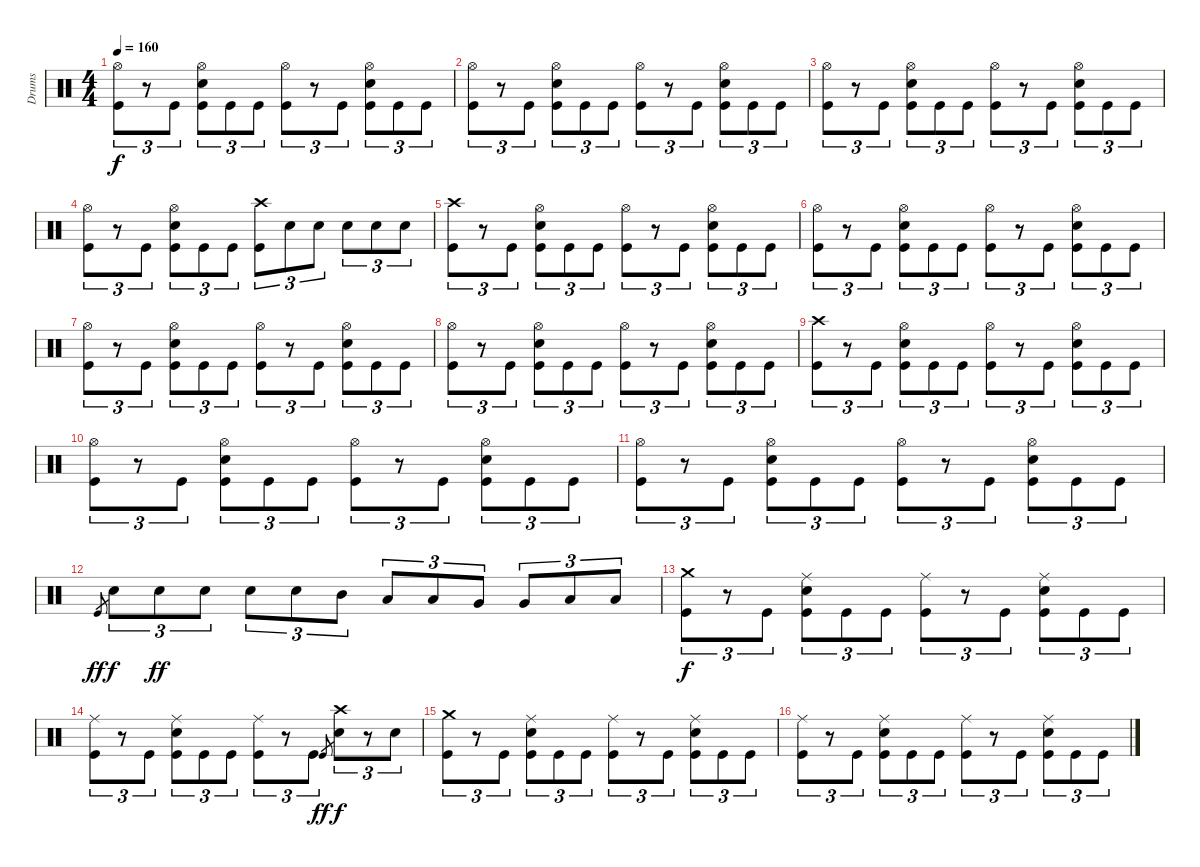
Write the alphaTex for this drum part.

\track ("Drums" "Drums") {instrument percussion}
\staff {score}
\articulation defaults
\ts (4 4)
\tempo 160
\clef neutral
\ks c
("Hi-Hat (open)" "Kick (hit)").8{tu (3 2) dy f} r.8{tu (3 2)} "Kick (hit)".8{tu (3 2)} ("Hi-Hat (open)" "Snare (hit) 2" "Kick (hit)").8{tu (3 2)} "Kick (hit)".8{tu (3 2)} "Kick (hit)".8{tu (3 2)} ("Hi-Hat (open)" "Kick (hit)").8{tu (3 2)} r.8{tu (3 2)} "Kick (hit)".8{tu (3 2)} ("Hi-Hat (open)" "Snare (hit) 2" "Kick (hit)").8{tu (3 2)} "Kick (hit)".8{tu (3 2)} "Kick (hit)".8{tu (3 2)} |
("Hi-Hat (open)" "Kick (hit)").8{tu (3 2)} r.8{tu (3 2)} "Kick (hit)".8{tu (3 2)} ("Hi-Hat (open)" "Snare (hit) 2" "Kick (hit)").8{tu (3 2)} "Kick (hit)".8{tu (3 2)} "Kick (hit)".8{tu (3 2)} ("Hi-Hat (open)" "Kick (hit)").8{tu (3 2)} r.8{tu (3 2)} "Kick (hit)".8{tu (3 2)} ("Hi-Hat (open)" "Snare (hit) 2" "Kick (hit)").8{tu (3 2)} "Kick (hit)".8{tu (3 2)} "Kick (hit)".8{tu (3 2)} |
("Hi-Hat (open)" "Kick (hit)").8{tu (3 2)} r.8{tu (3 2)} "Kick (hit)".8{tu (3 2)} ("Hi-Hat (open)" "Snare (hit) 2" "Kick (hit)").8{tu (3 2)} "Kick (hit)".8{tu (3 2)} "Kick (hit)".8{tu (3 2)} ("Hi-Hat (open)" "Kick (hit)").8{tu (3 2)} r.8{tu (3 2)} "Kick (hit)".8{tu (3 2)} ("Hi-Hat (open)" "Snare (hit) 2" "Kick (hit)").8{tu (3 2)} "Kick (hit)".8{tu (3 2)} "Kick (hit)".8{tu (3 2)} |
("Hi-Hat (open)" "Kick (hit)").8{tu (3 2)} r.8{tu (3 2)} "Kick (hit)".8{tu (3 2)} ("Hi-Hat (open)" "Snare (hit) 2" "Kick (hit)").8{tu (3 2)} "Kick (hit)".8{tu (3 2)} "Kick (hit)".8{tu (3 2)} ("Crash high (hit)" "Kick (hit)").8{tu (3 2)} "Snare (hit) 2".8{tu (3 2)} "Snare (hit) 2".8{tu (3 2)} "Snare (hit) 2".8{tu (3 2)} "Snare (hit) 2".8{tu (3 2)} "Snare (hit) 2".8{tu (3 2)} |
("Crash high (hit)" "Kick (hit)").8{tu (3 2)} r.8{tu (3 2)} "Kick (hit)".8{tu (3 2)} ("Hi-Hat (open)" "Snare (hit) 2" "Kick (hit)").8{tu (3 2)} "Kick (hit)".8{tu (3 2)} "Kick (hit)".8{tu (3 2)} ("Hi-Hat (open)" "Kick (hit)").8{tu (3 2)} r.8{tu (3 2)} "Kick (hit)".8{tu (3 2)} ("Hi-Hat (open)" "Snare (hit) 2" "Kick (hit)").8{tu (3 2)} "Kick (hit)".8{tu (3 2)} "Kick (hit)".8{tu (3 2)} |
("Hi-Hat (open)" "Kick (hit)").8{tu (3 2)} r.8{tu (3 2)} "Kick (hit)".8{tu (3 2)} ("Hi-Hat (open)" "Snare (hit) 2" "Kick (hit)").8{tu (3 2)} "Kick (hit)".8{tu (3 2)} "Kick (hit)".8{tu (3 2)} ("Hi-Hat (open)" "Kick (hit)").8{tu (3 2)} r.8{tu (3 2)} "Kick (hit)".8{tu (3 2)} ("Hi-Hat (open)" "Snare (hit) 2" "Kick (hit)").8{tu (3 2)} "Kick (hit)".8{tu (3 2)} "Kick (hit)".8{tu (3 2)} |
("Hi-Hat (open)" "Kick (hit)").8{tu (3 2)} r.8{tu (3 2)} "Kick (hit)".8{tu (3 2)} ("Hi-Hat (open)" "Snare (hit) 2" "Kick (hit)").8{tu (3 2)} "Kick (hit)".8{tu (3 2)} "Kick (hit)".8{tu (3 2)} ("Hi-Hat (open)" "Kick (hit)").8{tu (3 2)} r.8{tu (3 2)} "Kick (hit)".8{tu (3 2)} ("Hi-Hat (open)" "Snare (hit) 2" "Kick (hit)").8{tu (3 2)} "Kick (hit)".8{tu (3 2)} "Kick (hit)".8{tu (3 2)} |
("Hi-Hat (open)" "Kick (hit)").8{tu (3 2)} r.8{tu (3 2)} "Kick (hit)".8{tu (3 2)} ("Hi-Hat (open)" "Snare (hit) 2" "Kick (hit)").8{tu (3 2)} "Kick (hit)".8{tu (3 2)} "Kick (hit)".8{tu (3 2)} ("Hi-Hat (open)" "Kick (hit)").8{tu (3 2)} r.8{tu (3 2)} "Kick (hit)".8{tu (3 2)} ("Hi-Hat (open)" "Snare (hit) 2" "Kick (hit)").8{tu (3 2)} "Kick (hit)".8{tu (3 2)} "Kick (hit)".8{tu (3 2)} |
("Crash high (hit)" "Kick (hit)").8{tu (3 2)} r.8{tu (3 2)} "Kick (hit)".8{tu (3 2)} ("Hi-Hat (open)" "Snare (hit) 2" "Kick (hit)").8{tu (3 2)} "Kick (hit)".8{tu (3 2)} "Kick (hit)".8{tu (3 2)} ("Hi-Hat (open)" "Kick (hit)").8{tu (3 2)} r.8{tu (3 2)} "Kick (hit)".8{tu (3 2)} ("Hi-Hat (open)" "Snare (hit) 2" "Kick (hit)").8{tu (3 2)} "Kick (hit)".8{tu (3 2)} "Kick (hit)".8{tu (3 2)} |
("Hi-Hat (open)" "Kick (hit)").8{tu (3 2)} r.8{tu (3 2)} "Kick (hit)".8{tu (3 2)} ("Hi-Hat (open)" "Snare (hit) 2" "Kick (hit)").8{tu (3 2)} "Kick (hit)".8{tu (3 2)} "Kick (hit)".8{tu (3 2)} ("Hi-Hat (open)" "Kick (hit)").8{tu (3 2)} r.8{tu (3 2)} "Kick (hit)".8{tu (3 2)} ("Hi-Hat (open)" "Snare (hit) 2" "Kick (hit)").8{tu (3 2)} "Kick (hit)".8{tu (3 2)} "Kick (hit)".8{tu (3 2)} |
("Hi-Hat (open)" "Kick (hit)").8{tu (3 2)} r.8{tu (3 2)} "Kick (hit)".8{tu (3 2)} ("Hi-Hat (open)" "Snare (hit) 2" "Kick (hit)").8{tu (3 2)} "Kick (hit)".8{tu (3 2)} "Kick (hit)".8{tu (3 2)} ("Hi-Hat (open)" "Kick (hit)").8{tu (3 2)} r.8{tu (3 2)} "Kick (hit)".8{tu (3 2)} ("Hi-Hat (open)" "Snare (hit) 2" "Kick (hit)").8{tu (3 2)} "Kick (hit)".8{tu (3 2)} "Kick (hit)".8{tu (3 2)} |
"Kick (hit)".8{gr dy ff} "Snare (hit) 2".8{tu (3 2) dy f} "Snare (hit) 2".8{tu (3 2) dy ff} "Snare (hit) 2".8{tu (3 2)} "Snare (hit) 2".8{tu (3 2)} "Snare (hit) 2".8{tu (3 2)} "Mid Tom (hit)".8{tu (3 2)} "Low Tom (hit)".8{tu (3 2)} "Low Tom (hit)".8{tu (3 2)} "Very Low Tom (hit)".8{tu (3 2)} "Very Low Tom (hit)".8{tu (3 2)} "Low Floor Tom (hit)".8{tu (3 2)} "Low Floor Tom (hit)".8{tu (3 2)} |
("Crash medium (hit)" "Kick (hit)").8{tu (3 2) dy f} r.8{tu (3 2)} "Kick (hit)".8{tu (3 2)} ("Ride (middle)" "Snare (hit) 2" "Kick (hit)").8{tu (3 2)} "Kick (hit)".8{tu (3 2)} "Kick (hit)".8{tu (3 2)} ("Ride (middle)" "Kick (hit)").8{tu (3 2)} r.8{tu (3 2)} "Kick (hit)".8{tu (3 2)} ("Ride (middle)" "Snare (hit) 2" "Kick (hit)").8{tu (3 2)} "Kick (hit)".8{tu (3 2)} "Kick (hit)".8{tu (3 2)} |
("Ride (middle)" "Kick (hit)").8{tu (3 2)} r.8{tu (3 2)} "Kick (hit)".8{tu (3 2)} ("Ride (middle)" "Snare (hit) 2" "Kick (hit)").8{tu (3 2)} "Kick (hit)".8{tu (3 2)} "Kick (hit)".8{tu (3 2)} ("Ride (middle)" "Kick (hit)").8{tu (3 2)} r.8{tu (3 2)} "Kick (hit)".8{tu (3 2)} "Kick (hit)".8{gr dy ff} ("Crash high (hit)" "Snare (hit) 2").8{tu (3 2) dy f} r.8{tu (3 2)} "Snare (hit) 2".8{tu (3 2)} |
("Crash medium (hit)" "Kick (hit)").8{tu (3 2)} r.8{tu (3 2)} "Kick (hit)".8{tu (3 2)} ("Ride (middle)" "Snare (hit) 2" "Kick (hit)").8{tu (3 2)} "Kick (hit)".8{tu (3 2)} "Kick (hit)".8{tu (3 2)} ("Ride (middle)" "Kick (hit)").8{tu (3 2)} r.8{tu (3 2)} "Kick (hit)".8{tu (3 2)} ("Ride (middle)" "Snare (hit) 2" "Kick (hit)").8{tu (3 2)} "Kick (hit)".8{tu (3 2)} "Kick (hit)".8{tu (3 2)} |
("Ride (middle)" "Kick (hit)").8{tu (3 2)} r.8{tu (3 2)} "Kick (hit)".8{tu (3 2)} ("Ride (middle)" "Snare (hit) 2" "Kick (hit)").8{tu (3 2)} "Kick (hit)".8{tu (3 2)} "Kick (hit)".8{tu (3 2)} ("Ride (middle)" "Kick (hit)").8{tu (3 2)} r.8{tu (3 2)} "Kick (hit)".8{tu (3 2)} ("Ride (middle)" "Snare (hit) 2" "Kick (hit)").8{tu (3 2)} "Kick (hit)".8{tu (3 2)} "Kick (hit)".8{tu (3 2)}
